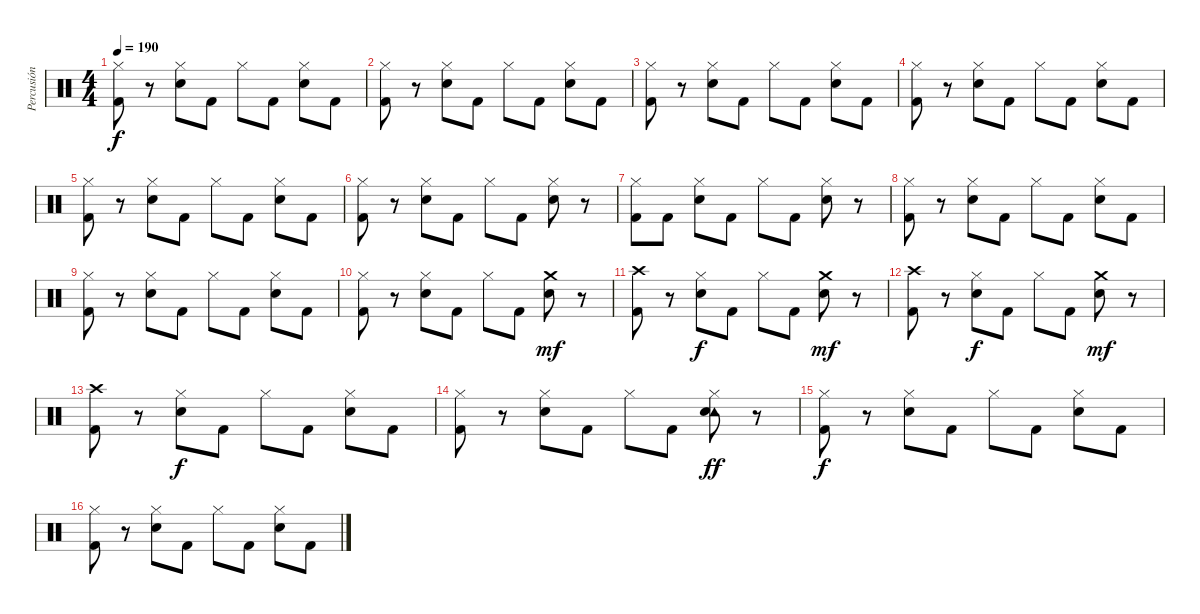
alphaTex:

\track ("Percusión" "Percusión") {instrument percussion}
\staff {score}
\articulation defaults
\ts (4 4)
\tempo 190
\clef neutral
\ks c
("Hi-Hat (closed)" "Kick (hit) 2").8{dy f} r.8 ("Hi-Hat (closed)" "Snare (hit) 2").8 "Kick (hit) 2".8 "Hi-Hat (closed)".8 "Kick (hit) 2".8 ("Hi-Hat (closed)" "Snare (hit) 2").8 "Kick (hit) 2".8 |
("Hi-Hat (closed)" "Kick (hit) 2").8 r.8 ("Hi-Hat (closed)" "Snare (hit) 2").8 "Kick (hit) 2".8 "Hi-Hat (closed)".8 "Kick (hit) 2".8 ("Hi-Hat (closed)" "Snare (hit) 2").8 "Kick (hit) 2".8 |
("Hi-Hat (closed)" "Kick (hit) 2").8 r.8 ("Hi-Hat (closed)" "Snare (hit) 2").8 "Kick (hit) 2".8 "Hi-Hat (closed)".8 "Kick (hit) 2".8 ("Hi-Hat (closed)" "Snare (hit) 2").8 "Kick (hit) 2".8 |
("Hi-Hat (closed)" "Kick (hit) 2").8 r.8 ("Hi-Hat (closed)" "Snare (hit) 2").8 "Kick (hit) 2".8 "Hi-Hat (closed)".8 "Kick (hit) 2".8 ("Hi-Hat (closed)" "Snare (hit) 2").8 "Kick (hit) 2".8 |
("Hi-Hat (closed)" "Kick (hit) 2").8 r.8 ("Hi-Hat (closed)" "Snare (hit) 2").8 "Kick (hit) 2".8 "Hi-Hat (closed)".8 "Kick (hit) 2".8 ("Hi-Hat (closed)" "Snare (hit) 2").8 "Kick (hit) 2".8 |
("Hi-Hat (closed)" "Kick (hit) 2").8 r.8 ("Hi-Hat (closed)" "Snare (hit) 2").8 "Kick (hit) 2".8 "Hi-Hat (closed)".8 "Kick (hit) 2".8 ("Hi-Hat (closed)" "Snare (hit) 2").8 r.8 |
("Hi-Hat (closed)" "Kick (hit) 2").8 "Kick (hit) 2".8 ("Hi-Hat (closed)" "Snare (hit) 2").8 "Kick (hit) 2".8 "Hi-Hat (closed)".8 "Kick (hit) 2".8 ("Hi-Hat (closed)" "Snare (hit) 2").8 r.8 |
("Hi-Hat (closed)" "Kick (hit) 2").8 r.8 ("Hi-Hat (closed)" "Snare (hit) 2").8 "Kick (hit) 2".8 "Hi-Hat (closed)".8 "Kick (hit) 2".8 ("Hi-Hat (closed)" "Snare (hit) 2").8 "Kick (hit) 2".8 |
("Hi-Hat (closed)" "Kick (hit) 2").8 r.8 ("Hi-Hat (closed)" "Snare (hit) 2").8 "Kick (hit) 2".8 "Hi-Hat (closed)".8 "Kick (hit) 2".8 ("Hi-Hat (closed)" "Snare (hit) 2").8 "Kick (hit) 2".8 |
("Hi-Hat (closed)" "Kick (hit) 2").8 r.8 ("Hi-Hat (closed)" "Snare (hit) 2").8 "Kick (hit) 2".8 "Hi-Hat (closed)".8 "Kick (hit) 2".8 ("Crash medium (hit)" "Snare (hit) 2").8{dy mf} r.8 |
("Crash high (hit)" "Kick (hit) 2").8 r.8 ("Hi-Hat (closed)" "Snare (hit) 2").8{dy f} "Kick (hit) 2".8 "Hi-Hat (closed)".8 "Kick (hit) 2".8 ("Crash medium (hit)" "Snare (hit) 2").8{dy mf} r.8 |
("Crash high (hit)" "Kick (hit) 2").8 r.8 ("Hi-Hat (closed)" "Snare (hit) 2").8{dy f} "Kick (hit) 2".8 "Hi-Hat (closed)".8 "Kick (hit) 2".8 ("Crash medium (hit)" "Snare (hit) 2").8{dy mf} r.8 |
("Crash high (hit)" "Kick (hit) 2").8 r.8 ("Hi-Hat (closed)" "Snare (hit) 2").8{dy f} "Kick (hit) 2".8 "Hi-Hat (closed)".8 "Kick (hit) 2".8 ("Hi-Hat (closed)" "Snare (hit) 2").8 "Kick (hit) 2".8 |
("Hi-Hat (closed)" "Kick (hit) 2").8 r.8 ("Hi-Hat (closed)" "Snare (hit) 2").8 "Kick (hit) 2".8 "Hi-Hat (closed)".8 "Kick (hit) 2".8 ("Hi-Hat (closed)" "Tambourine (hit)" "Snare (hit) 2").8{dy ff} r.8 |
("Hi-Hat (closed)" "Kick (hit) 2").8{dy f} r.8 ("Hi-Hat (closed)" "Snare (hit) 2").8 "Kick (hit) 2".8 "Hi-Hat (closed)".8 "Kick (hit) 2".8 ("Hi-Hat (closed)" "Snare (hit) 2").8 "Kick (hit) 2".8 |
("Hi-Hat (closed)" "Kick (hit) 2").8 r.8 ("Hi-Hat (closed)" "Snare (hit) 2").8 "Kick (hit) 2".8 "Hi-Hat (closed)".8 "Kick (hit) 2".8 ("Hi-Hat (closed)" "Snare (hit) 2").8 "Kick (hit) 2".8
